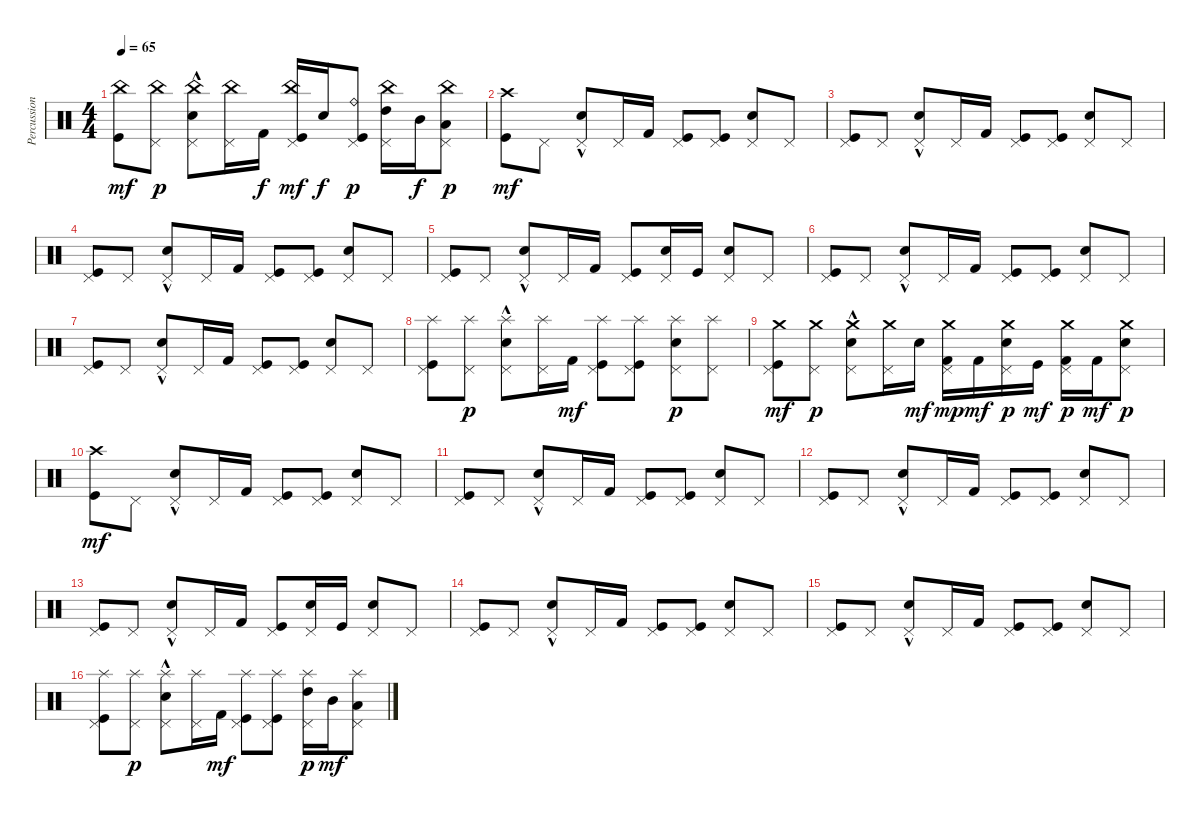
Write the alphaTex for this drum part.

\track ("Percussion" "Percussion") {instrument percussion}
\staff {score}
\articulation defaults
\ts (4 4)
\tempo 65
\clef neutral
\ks c
("Kick (hit)" "China (hit)").8{dy mf} ("Pedal Hi-Hat (hit)" "China (hit)").8{dy p} ("Pedal Hi-Hat (hit)" "China (hit)" "Hand Clap (hit)"{hac}).8 ("Pedal Hi-Hat (hit)" "China (hit)").16 "Kick (hit) 2".16{dy f} ("Pedal Hi-Hat (hit)" "China (hit)" "Kick (hit)").16{dy mf} "Snare (hit) 2".16{dy f} ("Kick (hit)" "Pedal Hi-Hat (hit)" "Ride (bell)").8{dy p} ("High Tom (hit)" "Pedal Hi-Hat (hit)" "China (hit)").16 "Mid Tom (hit)".16{dy f} ("Low Tom (hit)" "Pedal Hi-Hat (hit)" "China (hit)").8{dy p} |
("Kick (hit)" "Crash high (hit)").8{dy mf} "Pedal Hi-Hat (hit)".8 ("Pedal Hi-Hat (hit)" "Hand Clap (hit)"{hac}).8 "Pedal Hi-Hat (hit)".16 "Kick (hit) 2".16 ("Pedal Hi-Hat (hit)" "Kick (hit)").8 ("Pedal Hi-Hat (hit)" "Kick (hit)").8 ("Pedal Hi-Hat (hit)" "Hand Clap (hit)").8 "Pedal Hi-Hat (hit)".8 |
("Kick (hit)" "Pedal Hi-Hat (hit)").8 "Pedal Hi-Hat (hit)".8 ("Pedal Hi-Hat (hit)" "Hand Clap (hit)"{hac}).8 "Pedal Hi-Hat (hit)".16 "Kick (hit) 2".16 ("Pedal Hi-Hat (hit)" "Kick (hit)").8 ("Pedal Hi-Hat (hit)" "Kick (hit)").8 ("Pedal Hi-Hat (hit)" "Hand Clap (hit)").8 "Pedal Hi-Hat (hit)".8 |
("Kick (hit)" "Pedal Hi-Hat (hit)").8 "Pedal Hi-Hat (hit)".8 ("Pedal Hi-Hat (hit)" "Hand Clap (hit)"{hac}).8 "Pedal Hi-Hat (hit)".16 "Kick (hit) 2".16 ("Pedal Hi-Hat (hit)" "Kick (hit)").8 ("Pedal Hi-Hat (hit)" "Kick (hit)").8 ("Pedal Hi-Hat (hit)" "Hand Clap (hit)").8 "Pedal Hi-Hat (hit)".8 |
("Kick (hit)" "Pedal Hi-Hat (hit)").8 "Pedal Hi-Hat (hit)".8 ("Pedal Hi-Hat (hit)" "Hand Clap (hit)"{hac}).8 "Pedal Hi-Hat (hit)".16 "Kick (hit) 2".16 ("Pedal Hi-Hat (hit)" "Kick (hit)").8 ("Pedal Hi-Hat (hit)" "Electric Snare (hit)").16 "Kick (hit)".16 ("Snare (hit) 2" "Pedal Hi-Hat (hit)").8 "Pedal Hi-Hat (hit)".8 |
("Kick (hit)" "Pedal Hi-Hat (hit)").8 "Pedal Hi-Hat (hit)".8 ("Pedal Hi-Hat (hit)" "Hand Clap (hit)"{hac}).8 "Pedal Hi-Hat (hit)".16 "Kick (hit) 2".16 ("Pedal Hi-Hat (hit)" "Kick (hit)").8 ("Pedal Hi-Hat (hit)" "Kick (hit)").8 ("Pedal Hi-Hat (hit)" "Hand Clap (hit)").8 "Pedal Hi-Hat (hit)".8 |
("Kick (hit)" "Pedal Hi-Hat (hit)").8 "Pedal Hi-Hat (hit)".8 ("Pedal Hi-Hat (hit)" "Hand Clap (hit)"{hac}).8 "Pedal Hi-Hat (hit)".16 "Kick (hit) 2".16 ("Pedal Hi-Hat (hit)" "Kick (hit)").8 ("Pedal Hi-Hat (hit)" "Kick (hit)").8 ("Pedal Hi-Hat (hit)" "Hand Clap (hit)").8 "Pedal Hi-Hat (hit)".8 |
("Kick (hit)" "Pedal Hi-Hat (hit)" "Splash (hit)").8 ("Pedal Hi-Hat (hit)" "Splash (hit)").8{dy p} ("Pedal Hi-Hat (hit)" "Splash (hit)" "Hand Clap (hit)"{hac}).8 ("Pedal Hi-Hat (hit)" "Splash (hit)").16 "Kick (hit) 2".16{dy mf} ("Pedal Hi-Hat (hit)" "Splash (hit)" "Kick (hit)").8 ("Pedal Hi-Hat (hit)" "Splash (hit)" "Kick (hit)").8 ("Pedal Hi-Hat (hit)" "Splash (hit)" "Hand Clap (hit)").8{dy p} ("Pedal Hi-Hat (hit)" "Splash (hit)").8 |
("Kick (hit)" "Pedal Hi-Hat (hit)" "Crash medium (hit)").8{dy mf} ("Pedal Hi-Hat (hit)" "Crash medium (hit)").8{dy p} ("Pedal Hi-Hat (hit)" "Crash medium (hit)" "Hand Clap (hit)"{hac}).8 ("Pedal Hi-Hat (hit)" "Crash medium (hit)").16 "Snare (hit) 2".16{dy mf} ("Kick (hit) 2" "Pedal Hi-Hat (hit)" "Crash medium (hit)").16{dy mp} "Kick (hit) 2".16{dy mf} ("Electric Snare (hit)" "Pedal Hi-Hat (hit)" "Crash medium (hit)").16{dy p} "Kick (hit)".16{dy mf} ("Kick (hit) 2" "Pedal Hi-Hat (hit)" "Crash medium (hit)").16{dy p} "Kick (hit) 2".16{dy mf} ("Electric Snare (hit)" "Pedal Hi-Hat (hit)" "Crash medium (hit)").8{dy p} |
("Kick (hit)" "Crash high (hit)").8{dy mf} "Pedal Hi-Hat (hit)".8 ("Pedal Hi-Hat (hit)" "Hand Clap (hit)"{hac}).8 "Pedal Hi-Hat (hit)".16 "Kick (hit) 2".16 ("Pedal Hi-Hat (hit)" "Kick (hit)").8 ("Pedal Hi-Hat (hit)" "Kick (hit)").8 ("Pedal Hi-Hat (hit)" "Hand Clap (hit)").8 "Pedal Hi-Hat (hit)".8 |
("Kick (hit)" "Pedal Hi-Hat (hit)").8 "Pedal Hi-Hat (hit)".8 ("Pedal Hi-Hat (hit)" "Hand Clap (hit)"{hac}).8 "Pedal Hi-Hat (hit)".16 "Kick (hit) 2".16 ("Pedal Hi-Hat (hit)" "Kick (hit)").8 ("Pedal Hi-Hat (hit)" "Kick (hit)").8 ("Pedal Hi-Hat (hit)" "Hand Clap (hit)").8 "Pedal Hi-Hat (hit)".8 |
("Kick (hit)" "Pedal Hi-Hat (hit)").8 "Pedal Hi-Hat (hit)".8 ("Pedal Hi-Hat (hit)" "Hand Clap (hit)"{hac}).8 "Pedal Hi-Hat (hit)".16 "Kick (hit) 2".16 ("Pedal Hi-Hat (hit)" "Kick (hit)").8 ("Pedal Hi-Hat (hit)" "Kick (hit)").8 ("Pedal Hi-Hat (hit)" "Hand Clap (hit)").8 "Pedal Hi-Hat (hit)".8 |
("Kick (hit)" "Pedal Hi-Hat (hit)").8 "Pedal Hi-Hat (hit)".8 ("Pedal Hi-Hat (hit)" "Hand Clap (hit)"{hac}).8 "Pedal Hi-Hat (hit)".16 "Kick (hit) 2".16 ("Pedal Hi-Hat (hit)" "Kick (hit)").8 ("Pedal Hi-Hat (hit)" "Electric Snare (hit)").16 "Kick (hit)".16 ("Snare (hit) 2" "Pedal Hi-Hat (hit)").8 "Pedal Hi-Hat (hit)".8 |
("Kick (hit)" "Pedal Hi-Hat (hit)").8 "Pedal Hi-Hat (hit)".8 ("Pedal Hi-Hat (hit)" "Hand Clap (hit)"{hac}).8 "Pedal Hi-Hat (hit)".16 "Kick (hit) 2".16 ("Pedal Hi-Hat (hit)" "Kick (hit)").8 ("Pedal Hi-Hat (hit)" "Kick (hit)").8 ("Pedal Hi-Hat (hit)" "Hand Clap (hit)").8 "Pedal Hi-Hat (hit)".8 |
("Kick (hit)" "Pedal Hi-Hat (hit)").8 "Pedal Hi-Hat (hit)".8 ("Pedal Hi-Hat (hit)" "Hand Clap (hit)"{hac}).8 "Pedal Hi-Hat (hit)".16 "Kick (hit) 2".16 ("Pedal Hi-Hat (hit)" "Kick (hit)").8 ("Pedal Hi-Hat (hit)" "Kick (hit)").8 ("Pedal Hi-Hat (hit)" "Hand Clap (hit)").8 "Pedal Hi-Hat (hit)".8 |
("Kick (hit)" "Pedal Hi-Hat (hit)" "Splash (hit)").8 ("Pedal Hi-Hat (hit)" "Splash (hit)").8{dy p} ("Pedal Hi-Hat (hit)" "Splash (hit)" "Hand Clap (hit)"{hac}).8 ("Pedal Hi-Hat (hit)" "Splash (hit)").16 "Kick (hit) 2".16{dy mf} ("Pedal Hi-Hat (hit)" "Splash (hit)" "Kick (hit)").8 ("Pedal Hi-Hat (hit)" "Splash (hit)" "Kick (hit)").8 ("Pedal Hi-Hat (hit)" "Splash (hit)" "High Tom (hit)").16{dy p} "Mid Tom (hit)".16{dy mf} ("Pedal Hi-Hat (hit)" "Splash (hit)" "Low Tom (hit)").8
